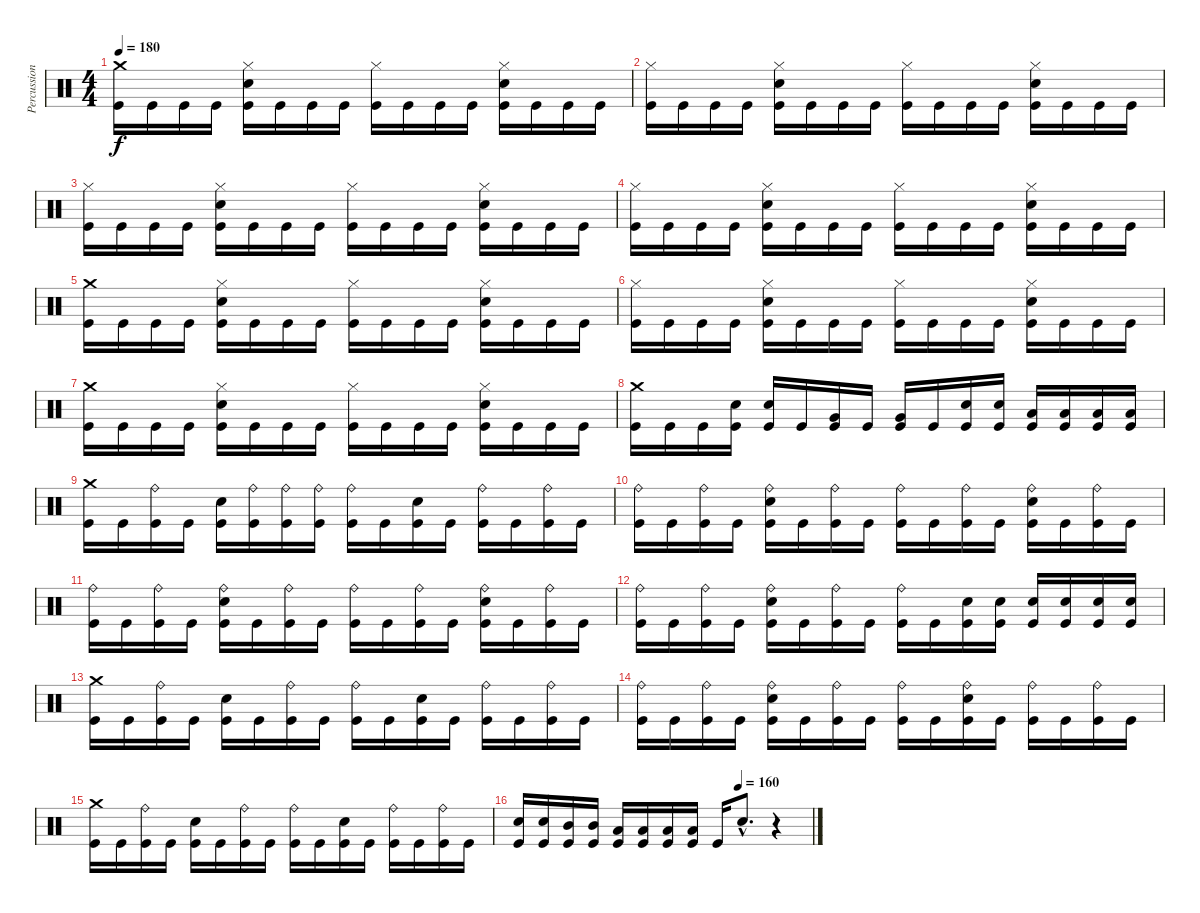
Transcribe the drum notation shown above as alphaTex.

\track ("Percussions" "Percussion") {instrument percussion}
\staff {score}
\articulation defaults
\ts (4 4)
\tempo 180
\clef neutral
\ks c
("Kick (hit)" "Crash medium (hit)").16{dy f} "Kick (hit)".16 "Kick (hit)".16 "Kick (hit)".16 ("Kick (hit)" "Electric Snare (hit)" "Hi-Hat (closed)").16 "Kick (hit)".16 "Kick (hit)".16 "Kick (hit)".16 ("Kick (hit)" "Hi-Hat (closed)").16 "Kick (hit)".16 "Kick (hit)".16 "Kick (hit)".16 ("Kick (hit)" "Electric Snare (hit)" "Hi-Hat (closed)").16 "Kick (hit)".16 "Kick (hit)".16 "Kick (hit)".16 |
("Kick (hit)" "Hi-Hat (closed)").16 "Kick (hit)".16 "Kick (hit)".16 "Kick (hit)".16 ("Kick (hit)" "Electric Snare (hit)" "Hi-Hat (closed)").16 "Kick (hit)".16 "Kick (hit)".16 "Kick (hit)".16 ("Kick (hit)" "Hi-Hat (closed)").16 "Kick (hit)".16 "Kick (hit)".16 "Kick (hit)".16 ("Kick (hit)" "Electric Snare (hit)" "Hi-Hat (closed)").16 "Kick (hit)".16 "Kick (hit)".16 "Kick (hit)".16 |
("Kick (hit)" "Hi-Hat (closed)").16 "Kick (hit)".16 "Kick (hit)".16 "Kick (hit)".16 ("Kick (hit)" "Electric Snare (hit)" "Hi-Hat (closed)").16 "Kick (hit)".16 "Kick (hit)".16 "Kick (hit)".16 ("Kick (hit)" "Hi-Hat (closed)").16 "Kick (hit)".16 "Kick (hit)".16 "Kick (hit)".16 ("Kick (hit)" "Electric Snare (hit)" "Hi-Hat (closed)").16 "Kick (hit)".16 "Kick (hit)".16 "Kick (hit)".16 |
("Kick (hit)" "Hi-Hat (closed)").16 "Kick (hit)".16 "Kick (hit)".16 "Kick (hit)".16 ("Kick (hit)" "Electric Snare (hit)" "Hi-Hat (closed)").16 "Kick (hit)".16 "Kick (hit)".16 "Kick (hit)".16 ("Kick (hit)" "Hi-Hat (closed)").16 "Kick (hit)".16 "Kick (hit)".16 "Kick (hit)".16 ("Kick (hit)" "Electric Snare (hit)" "Hi-Hat (closed)").16 "Kick (hit)".16 "Kick (hit)".16 "Kick (hit)".16 |
("Kick (hit)" "Crash medium (hit)").16 "Kick (hit)".16 "Kick (hit)".16 "Kick (hit)".16 ("Kick (hit)" "Electric Snare (hit)" "Hi-Hat (closed)").16 "Kick (hit)".16 "Kick (hit)".16 "Kick (hit)".16 ("Kick (hit)" "Hi-Hat (closed)").16 "Kick (hit)".16 "Kick (hit)".16 "Kick (hit)".16 ("Kick (hit)" "Electric Snare (hit)" "Hi-Hat (closed)").16 "Kick (hit)".16 "Kick (hit)".16 "Kick (hit)".16 |
("Kick (hit)" "Hi-Hat (closed)").16 "Kick (hit)".16 "Kick (hit)".16 "Kick (hit)".16 ("Kick (hit)" "Electric Snare (hit)" "Hi-Hat (closed)").16 "Kick (hit)".16 "Kick (hit)".16 "Kick (hit)".16 ("Kick (hit)" "Hi-Hat (closed)").16 "Kick (hit)".16 "Kick (hit)".16 "Kick (hit)".16 ("Kick (hit)" "Electric Snare (hit)" "Hi-Hat (closed)").16 "Kick (hit)".16 "Kick (hit)".16 "Kick (hit)".16 |
("Kick (hit)" "Crash medium (hit)").16 "Kick (hit)".16 "Kick (hit)".16 "Kick (hit)".16 ("Kick (hit)" "Electric Snare (hit)" "Hi-Hat (closed)").16 "Kick (hit)".16 "Kick (hit)".16 "Kick (hit)".16 ("Kick (hit)" "Hi-Hat (closed)").16 "Kick (hit)".16 "Kick (hit)".16 "Kick (hit)".16 ("Kick (hit)" "Electric Snare (hit)" "Hi-Hat (closed)").16 "Kick (hit)".16 "Kick (hit)".16 "Kick (hit)".16 |
("Kick (hit)" "Crash medium (hit)").16 "Kick (hit)".16 "Kick (hit)".16 ("Kick (hit)" "Electric Snare (hit)").16 ("Kick (hit)" "Electric Snare (hit)").16 "Kick (hit)".16 ("Kick (hit)" "Very Low Tom (hit)").16 "Kick (hit)".16 ("Kick (hit)" "Very Low Tom (hit)").16 "Kick (hit)".16 ("Kick (hit)" "Electric Snare (hit)").16 ("Kick (hit)" "Electric Snare (hit)").16 ("Kick (hit)" "Low Tom (hit)").16 ("Kick (hit)" "Low Tom (hit)").16 ("Kick (hit)" "Low Tom (hit)").16 ("Kick (hit)" "Low Tom (hit)").16 |
("Kick (hit)" "Crash medium (hit)").16 "Kick (hit)".16 ("Kick (hit)" "Ride (bell)").16 "Kick (hit)".16 ("Kick (hit)" "Electric Snare (hit)").16 ("Kick (hit)" "Ride (bell)").16 ("Kick (hit)" "Ride (bell)").16 ("Kick (hit)" "Ride (bell)").16 ("Kick (hit)" "Ride (bell)").16 "Kick (hit)".16 ("Kick (hit)" "Electric Snare (hit)").16 "Kick (hit)".16 ("Kick (hit)" "Ride (bell)").16 "Kick (hit)".16 ("Kick (hit)" "Ride (bell)").16 "Kick (hit)".16 |
("Kick (hit)" "Ride (bell)").16 "Kick (hit)".16 ("Kick (hit)" "Ride (bell)").16 "Kick (hit)".16 ("Kick (hit)" "Electric Snare (hit)" "Ride (bell)").16 "Kick (hit)".16 ("Kick (hit)" "Ride (bell)").16 "Kick (hit)".16 ("Kick (hit)" "Ride (bell)").16 "Kick (hit)".16 ("Kick (hit)" "Ride (bell)").16 "Kick (hit)".16 ("Kick (hit)" "Electric Snare (hit)" "Ride (bell)").16 "Kick (hit)".16 ("Kick (hit)" "Ride (bell)").16 "Kick (hit)".16 |
("Kick (hit)" "Ride (bell)").16 "Kick (hit)".16 ("Kick (hit)" "Ride (bell)").16 "Kick (hit)".16 ("Kick (hit)" "Electric Snare (hit)" "Ride (bell)").16 "Kick (hit)".16 ("Kick (hit)" "Ride (bell)").16 "Kick (hit)".16 ("Kick (hit)" "Ride (bell)").16 "Kick (hit)".16 ("Kick (hit)" "Ride (bell)").16 "Kick (hit)".16 ("Kick (hit)" "Electric Snare (hit)" "Ride (bell)").16 "Kick (hit)".16 ("Kick (hit)" "Ride (bell)").16 "Kick (hit)".16 |
("Kick (hit)" "Ride (bell)").16 "Kick (hit)".16 ("Kick (hit)" "Ride (bell)").16 "Kick (hit)".16 ("Kick (hit)" "Electric Snare (hit)" "Ride (bell)").16 "Kick (hit)".16 ("Kick (hit)" "Ride (bell)").16 "Kick (hit)".16 ("Kick (hit)" "Ride (bell)").16 "Kick (hit)".16 ("Kick (hit)" "Electric Snare (hit)").16 ("Kick (hit)" "Electric Snare (hit)").16 ("Kick (hit)" "Electric Snare (hit)").16 ("Kick (hit)" "Electric Snare (hit)").16 ("Kick (hit)" "Electric Snare (hit)").16 ("Kick (hit)" "Electric Snare (hit)").16 |
("Kick (hit)" "Crash medium (hit)").16 "Kick (hit)".16 ("Kick (hit)" "Ride (bell)").16 "Kick (hit)".16 ("Kick (hit)" "Electric Snare (hit)").16 "Kick (hit)".16 ("Kick (hit)" "Ride (bell)").16 "Kick (hit)".16 ("Kick (hit)" "Ride (bell)").16 "Kick (hit)".16 ("Kick (hit)" "Electric Snare (hit)").16 "Kick (hit)".16 ("Kick (hit)" "Ride (bell)").16 "Kick (hit)".16 ("Kick (hit)" "Ride (bell)").16 "Kick (hit)".16 |
("Kick (hit)" "Ride (bell)").16 "Kick (hit)".16 ("Kick (hit)" "Ride (bell)").16 "Kick (hit)".16 ("Kick (hit)" "Electric Snare (hit)" "Ride (bell)").16 "Kick (hit)".16 ("Kick (hit)" "Ride (bell)").16 "Kick (hit)".16 ("Kick (hit)" "Ride (bell)").16 "Kick (hit)".16 ("Kick (hit)" "Electric Snare (hit)" "Ride (bell)").16 "Kick (hit)".16 ("Kick (hit)" "Ride (bell)").16 "Kick (hit)".16 ("Kick (hit)" "Ride (bell)").16 "Kick (hit)".16 |
("Kick (hit)" "Crash medium (hit)").16 "Kick (hit)".16 ("Kick (hit)" "Ride (bell)").16 "Kick (hit)".16 ("Kick (hit)" "Electric Snare (hit)").16 "Kick (hit)".16 ("Kick (hit)" "Ride (bell)").16 "Kick (hit)".16 ("Kick (hit)" "Ride (bell)").16 "Kick (hit)".16 ("Kick (hit)" "Electric Snare (hit)").16 "Kick (hit)".16 ("Kick (hit)" "Ride (bell)").16 "Kick (hit)".16 ("Kick (hit)" "Ride (bell)").16 "Kick (hit)".16 |
\tempo (160 0.75)
("Kick (hit)" "Electric Snare (hit)").16 ("Kick (hit)" "Electric Snare (hit)").16 ("Kick (hit)" "Mid Tom (hit)").16 ("Kick (hit)" "Mid Tom (hit)").16 ("Kick (hit)" "Low Tom (hit)").16 ("Kick (hit)" "Low Tom (hit)").16 ("Kick (hit)" "Low Tom (hit)").16 ("Kick (hit)" "Low Tom (hit)").16 "Kick (hit)".16 "Electric Snare (hit)"{hac}.8{d} r.4
